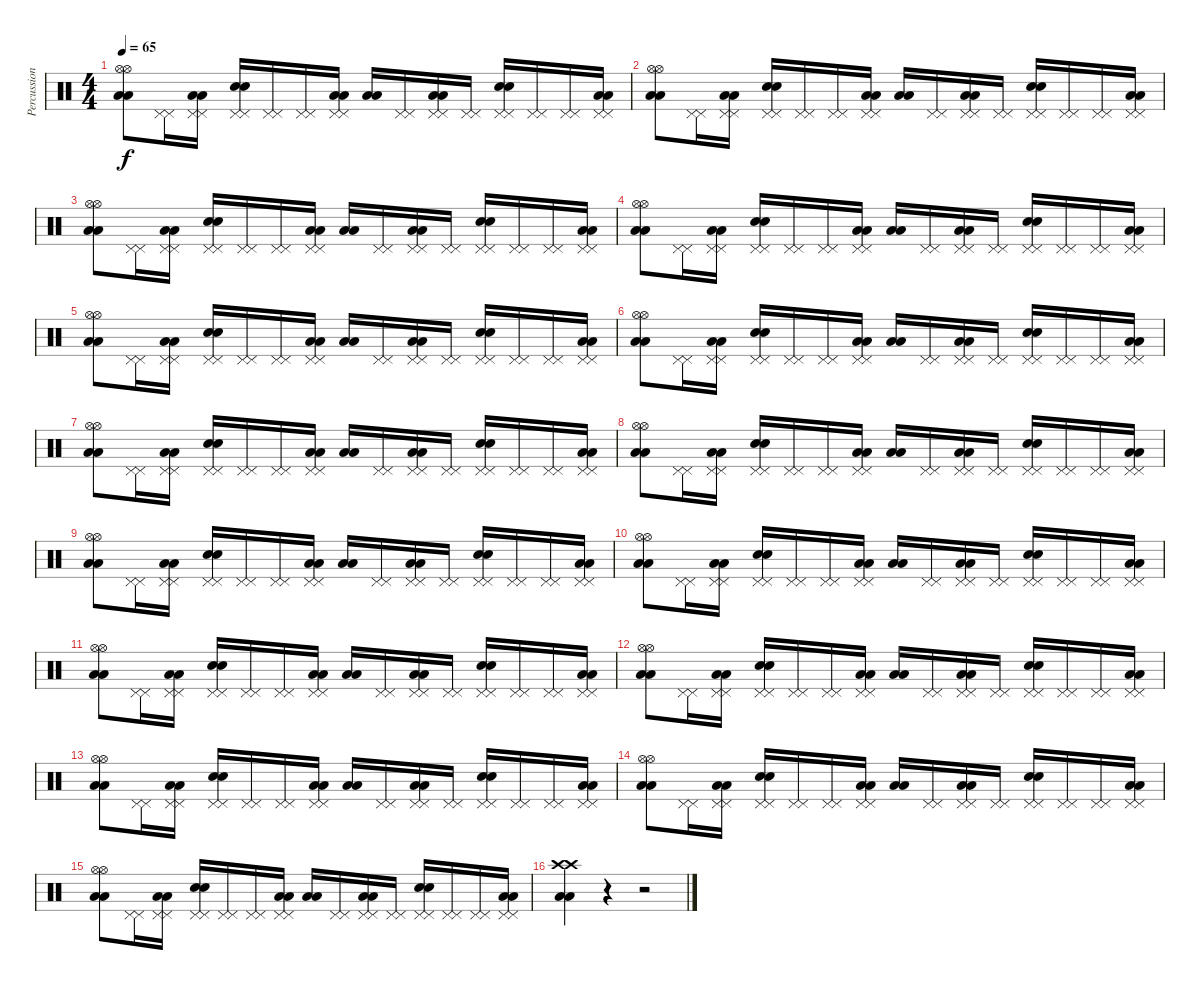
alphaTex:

\track ("Percussions" "Percussion") {instrument percussion}
\staff {score}
\articulation defaults
\ts (4 4)
\tempo 65
\clef neutral
\ks c
("Hi-Hat (open)" "Hi-Hat (open)" "Low Floor Tom (hit)" "Low Floor Tom (hit)").8{dy f} ("Pedal Hi-Hat (hit)" "Pedal Hi-Hat (hit)").16 ("Pedal Hi-Hat (hit)" "Pedal Hi-Hat (hit)" "Low Floor Tom (hit)" "Low Floor Tom (hit)").16 ("Pedal Hi-Hat (hit)" "Pedal Hi-Hat (hit)" "Snare (hit) 2" "Snare (hit) 2").16 ("Pedal Hi-Hat (hit)" "Pedal Hi-Hat (hit)").16 ("Pedal Hi-Hat (hit)" "Pedal Hi-Hat (hit)").16 ("Pedal Hi-Hat (hit)" "Pedal Hi-Hat (hit)" "Low Floor Tom (hit)" "Low Floor Tom (hit)").16 ("Low Floor Tom (hit)" "Low Floor Tom (hit)").16 ("Pedal Hi-Hat (hit)" "Pedal Hi-Hat (hit)").16 ("Pedal Hi-Hat (hit)" "Pedal Hi-Hat (hit)" "Low Floor Tom (hit)" "Low Floor Tom (hit)").16 ("Pedal Hi-Hat (hit)" "Pedal Hi-Hat (hit)").16 ("Pedal Hi-Hat (hit)" "Pedal Hi-Hat (hit)" "Snare (hit) 2" "Snare (hit) 2").16 ("Pedal Hi-Hat (hit)" "Pedal Hi-Hat (hit)").16 ("Pedal Hi-Hat (hit)" "Pedal Hi-Hat (hit)").16 ("Pedal Hi-Hat (hit)" "Pedal Hi-Hat (hit)" "Low Floor Tom (hit)" "Low Floor Tom (hit)").16 |
("Hi-Hat (open)" "Hi-Hat (open)" "Low Floor Tom (hit)" "Low Floor Tom (hit)").8 ("Pedal Hi-Hat (hit)" "Pedal Hi-Hat (hit)").16 ("Pedal Hi-Hat (hit)" "Pedal Hi-Hat (hit)" "Low Floor Tom (hit)" "Low Floor Tom (hit)").16 ("Pedal Hi-Hat (hit)" "Pedal Hi-Hat (hit)" "Snare (hit) 2" "Snare (hit) 2").16 ("Pedal Hi-Hat (hit)" "Pedal Hi-Hat (hit)").16 ("Pedal Hi-Hat (hit)" "Pedal Hi-Hat (hit)").16 ("Pedal Hi-Hat (hit)" "Pedal Hi-Hat (hit)" "Low Floor Tom (hit)" "Low Floor Tom (hit)").16 ("Low Floor Tom (hit)" "Low Floor Tom (hit)").16 ("Pedal Hi-Hat (hit)" "Pedal Hi-Hat (hit)").16 ("Pedal Hi-Hat (hit)" "Pedal Hi-Hat (hit)" "Low Floor Tom (hit)" "Low Floor Tom (hit)").16 ("Pedal Hi-Hat (hit)" "Pedal Hi-Hat (hit)").16 ("Pedal Hi-Hat (hit)" "Pedal Hi-Hat (hit)" "Snare (hit) 2" "Snare (hit) 2").16 ("Pedal Hi-Hat (hit)" "Pedal Hi-Hat (hit)").16 ("Pedal Hi-Hat (hit)" "Pedal Hi-Hat (hit)").16 ("Pedal Hi-Hat (hit)" "Pedal Hi-Hat (hit)" "Low Floor Tom (hit)" "Low Floor Tom (hit)").16 |
("Hi-Hat (open)" "Hi-Hat (open)" "Low Floor Tom (hit)" "Low Floor Tom (hit)").8 ("Pedal Hi-Hat (hit)" "Pedal Hi-Hat (hit)").16 ("Pedal Hi-Hat (hit)" "Pedal Hi-Hat (hit)" "Low Floor Tom (hit)" "Low Floor Tom (hit)").16 ("Pedal Hi-Hat (hit)" "Pedal Hi-Hat (hit)" "Snare (hit) 2" "Snare (hit) 2").16 ("Pedal Hi-Hat (hit)" "Pedal Hi-Hat (hit)").16 ("Pedal Hi-Hat (hit)" "Pedal Hi-Hat (hit)").16 ("Pedal Hi-Hat (hit)" "Pedal Hi-Hat (hit)" "Low Floor Tom (hit)" "Low Floor Tom (hit)").16 ("Low Floor Tom (hit)" "Low Floor Tom (hit)").16 ("Pedal Hi-Hat (hit)" "Pedal Hi-Hat (hit)").16 ("Pedal Hi-Hat (hit)" "Pedal Hi-Hat (hit)" "Low Floor Tom (hit)" "Low Floor Tom (hit)").16 ("Pedal Hi-Hat (hit)" "Pedal Hi-Hat (hit)").16 ("Pedal Hi-Hat (hit)" "Pedal Hi-Hat (hit)" "Snare (hit) 2" "Snare (hit) 2").16 ("Pedal Hi-Hat (hit)" "Pedal Hi-Hat (hit)").16 ("Pedal Hi-Hat (hit)" "Pedal Hi-Hat (hit)").16 ("Pedal Hi-Hat (hit)" "Pedal Hi-Hat (hit)" "Low Floor Tom (hit)" "Low Floor Tom (hit)").16 |
("Hi-Hat (open)" "Hi-Hat (open)" "Low Floor Tom (hit)" "Low Floor Tom (hit)").8 ("Pedal Hi-Hat (hit)" "Pedal Hi-Hat (hit)").16 ("Pedal Hi-Hat (hit)" "Pedal Hi-Hat (hit)" "Low Floor Tom (hit)" "Low Floor Tom (hit)").16 ("Pedal Hi-Hat (hit)" "Pedal Hi-Hat (hit)" "Snare (hit) 2" "Snare (hit) 2").16 ("Pedal Hi-Hat (hit)" "Pedal Hi-Hat (hit)").16 ("Pedal Hi-Hat (hit)" "Pedal Hi-Hat (hit)").16 ("Pedal Hi-Hat (hit)" "Pedal Hi-Hat (hit)" "Low Floor Tom (hit)" "Low Floor Tom (hit)").16 ("Low Floor Tom (hit)" "Low Floor Tom (hit)").16 ("Pedal Hi-Hat (hit)" "Pedal Hi-Hat (hit)").16 ("Pedal Hi-Hat (hit)" "Pedal Hi-Hat (hit)" "Low Floor Tom (hit)" "Low Floor Tom (hit)").16 ("Pedal Hi-Hat (hit)" "Pedal Hi-Hat (hit)").16 ("Pedal Hi-Hat (hit)" "Pedal Hi-Hat (hit)" "Snare (hit) 2" "Snare (hit) 2").16 ("Pedal Hi-Hat (hit)" "Pedal Hi-Hat (hit)").16 ("Pedal Hi-Hat (hit)" "Pedal Hi-Hat (hit)").16 ("Pedal Hi-Hat (hit)" "Pedal Hi-Hat (hit)" "Low Floor Tom (hit)" "Low Floor Tom (hit)").16 |
("Hi-Hat (open)" "Hi-Hat (open)" "Low Floor Tom (hit)" "Low Floor Tom (hit)").8 ("Pedal Hi-Hat (hit)" "Pedal Hi-Hat (hit)").16 ("Pedal Hi-Hat (hit)" "Pedal Hi-Hat (hit)" "Low Floor Tom (hit)" "Low Floor Tom (hit)").16 ("Pedal Hi-Hat (hit)" "Pedal Hi-Hat (hit)" "Snare (hit) 2" "Snare (hit) 2").16 ("Pedal Hi-Hat (hit)" "Pedal Hi-Hat (hit)").16 ("Pedal Hi-Hat (hit)" "Pedal Hi-Hat (hit)").16 ("Pedal Hi-Hat (hit)" "Pedal Hi-Hat (hit)" "Low Floor Tom (hit)" "Low Floor Tom (hit)").16 ("Low Floor Tom (hit)" "Low Floor Tom (hit)").16 ("Pedal Hi-Hat (hit)" "Pedal Hi-Hat (hit)").16 ("Pedal Hi-Hat (hit)" "Pedal Hi-Hat (hit)" "Low Floor Tom (hit)" "Low Floor Tom (hit)").16 ("Pedal Hi-Hat (hit)" "Pedal Hi-Hat (hit)").16 ("Pedal Hi-Hat (hit)" "Pedal Hi-Hat (hit)" "Snare (hit) 2" "Snare (hit) 2").16 ("Pedal Hi-Hat (hit)" "Pedal Hi-Hat (hit)").16 ("Pedal Hi-Hat (hit)" "Pedal Hi-Hat (hit)").16 ("Pedal Hi-Hat (hit)" "Pedal Hi-Hat (hit)" "Low Floor Tom (hit)" "Low Floor Tom (hit)").16 |
("Hi-Hat (open)" "Hi-Hat (open)" "Low Floor Tom (hit)" "Low Floor Tom (hit)").8 ("Pedal Hi-Hat (hit)" "Pedal Hi-Hat (hit)").16 ("Pedal Hi-Hat (hit)" "Pedal Hi-Hat (hit)" "Low Floor Tom (hit)" "Low Floor Tom (hit)").16 ("Pedal Hi-Hat (hit)" "Pedal Hi-Hat (hit)" "Snare (hit) 2" "Snare (hit) 2").16 ("Pedal Hi-Hat (hit)" "Pedal Hi-Hat (hit)").16 ("Pedal Hi-Hat (hit)" "Pedal Hi-Hat (hit)").16 ("Pedal Hi-Hat (hit)" "Pedal Hi-Hat (hit)" "Low Floor Tom (hit)" "Low Floor Tom (hit)").16 ("Low Floor Tom (hit)" "Low Floor Tom (hit)").16 ("Pedal Hi-Hat (hit)" "Pedal Hi-Hat (hit)").16 ("Pedal Hi-Hat (hit)" "Pedal Hi-Hat (hit)" "Low Floor Tom (hit)" "Low Floor Tom (hit)").16 ("Pedal Hi-Hat (hit)" "Pedal Hi-Hat (hit)").16 ("Pedal Hi-Hat (hit)" "Pedal Hi-Hat (hit)" "Snare (hit) 2" "Snare (hit) 2").16 ("Pedal Hi-Hat (hit)" "Pedal Hi-Hat (hit)").16 ("Pedal Hi-Hat (hit)" "Pedal Hi-Hat (hit)").16 ("Pedal Hi-Hat (hit)" "Pedal Hi-Hat (hit)" "Low Floor Tom (hit)" "Low Floor Tom (hit)").16 |
("Hi-Hat (open)" "Hi-Hat (open)" "Low Floor Tom (hit)" "Low Floor Tom (hit)").8 ("Pedal Hi-Hat (hit)" "Pedal Hi-Hat (hit)").16 ("Pedal Hi-Hat (hit)" "Pedal Hi-Hat (hit)" "Low Floor Tom (hit)" "Low Floor Tom (hit)").16 ("Pedal Hi-Hat (hit)" "Pedal Hi-Hat (hit)" "Snare (hit) 2" "Snare (hit) 2").16 ("Pedal Hi-Hat (hit)" "Pedal Hi-Hat (hit)").16 ("Pedal Hi-Hat (hit)" "Pedal Hi-Hat (hit)").16 ("Pedal Hi-Hat (hit)" "Pedal Hi-Hat (hit)" "Low Floor Tom (hit)" "Low Floor Tom (hit)").16 ("Low Floor Tom (hit)" "Low Floor Tom (hit)").16 ("Pedal Hi-Hat (hit)" "Pedal Hi-Hat (hit)").16 ("Pedal Hi-Hat (hit)" "Pedal Hi-Hat (hit)" "Low Floor Tom (hit)" "Low Floor Tom (hit)").16 ("Pedal Hi-Hat (hit)" "Pedal Hi-Hat (hit)").16 ("Pedal Hi-Hat (hit)" "Pedal Hi-Hat (hit)" "Snare (hit) 2" "Snare (hit) 2").16 ("Pedal Hi-Hat (hit)" "Pedal Hi-Hat (hit)").16 ("Pedal Hi-Hat (hit)" "Pedal Hi-Hat (hit)").16 ("Pedal Hi-Hat (hit)" "Pedal Hi-Hat (hit)" "Low Floor Tom (hit)" "Low Floor Tom (hit)").16 |
("Hi-Hat (open)" "Hi-Hat (open)" "Low Floor Tom (hit)" "Low Floor Tom (hit)").8 ("Pedal Hi-Hat (hit)" "Pedal Hi-Hat (hit)").16 ("Pedal Hi-Hat (hit)" "Pedal Hi-Hat (hit)" "Low Floor Tom (hit)" "Low Floor Tom (hit)").16 ("Pedal Hi-Hat (hit)" "Pedal Hi-Hat (hit)" "Snare (hit) 2" "Snare (hit) 2").16 ("Pedal Hi-Hat (hit)" "Pedal Hi-Hat (hit)").16 ("Pedal Hi-Hat (hit)" "Pedal Hi-Hat (hit)").16 ("Pedal Hi-Hat (hit)" "Pedal Hi-Hat (hit)" "Low Floor Tom (hit)" "Low Floor Tom (hit)").16 ("Low Floor Tom (hit)" "Low Floor Tom (hit)").16 ("Pedal Hi-Hat (hit)" "Pedal Hi-Hat (hit)").16 ("Pedal Hi-Hat (hit)" "Pedal Hi-Hat (hit)" "Low Floor Tom (hit)" "Low Floor Tom (hit)").16 ("Pedal Hi-Hat (hit)" "Pedal Hi-Hat (hit)").16 ("Pedal Hi-Hat (hit)" "Pedal Hi-Hat (hit)" "Snare (hit) 2" "Snare (hit) 2").16 ("Pedal Hi-Hat (hit)" "Pedal Hi-Hat (hit)").16 ("Pedal Hi-Hat (hit)" "Pedal Hi-Hat (hit)").16 ("Pedal Hi-Hat (hit)" "Pedal Hi-Hat (hit)" "Low Floor Tom (hit)" "Low Floor Tom (hit)").16 |
("Hi-Hat (open)" "Hi-Hat (open)" "Low Floor Tom (hit)" "Low Floor Tom (hit)").8 ("Pedal Hi-Hat (hit)" "Pedal Hi-Hat (hit)").16 ("Pedal Hi-Hat (hit)" "Pedal Hi-Hat (hit)" "Low Floor Tom (hit)" "Low Floor Tom (hit)").16 ("Pedal Hi-Hat (hit)" "Pedal Hi-Hat (hit)" "Snare (hit) 2" "Snare (hit) 2").16 ("Pedal Hi-Hat (hit)" "Pedal Hi-Hat (hit)").16 ("Pedal Hi-Hat (hit)" "Pedal Hi-Hat (hit)").16 ("Pedal Hi-Hat (hit)" "Pedal Hi-Hat (hit)" "Low Floor Tom (hit)" "Low Floor Tom (hit)").16 ("Low Floor Tom (hit)" "Low Floor Tom (hit)").16 ("Pedal Hi-Hat (hit)" "Pedal Hi-Hat (hit)").16 ("Pedal Hi-Hat (hit)" "Pedal Hi-Hat (hit)" "Low Floor Tom (hit)" "Low Floor Tom (hit)").16 ("Pedal Hi-Hat (hit)" "Pedal Hi-Hat (hit)").16 ("Pedal Hi-Hat (hit)" "Pedal Hi-Hat (hit)" "Snare (hit) 2" "Snare (hit) 2").16 ("Pedal Hi-Hat (hit)" "Pedal Hi-Hat (hit)").16 ("Pedal Hi-Hat (hit)" "Pedal Hi-Hat (hit)").16 ("Pedal Hi-Hat (hit)" "Pedal Hi-Hat (hit)" "Low Floor Tom (hit)" "Low Floor Tom (hit)").16 |
("Hi-Hat (open)" "Hi-Hat (open)" "Low Floor Tom (hit)" "Low Floor Tom (hit)").8 ("Pedal Hi-Hat (hit)" "Pedal Hi-Hat (hit)").16 ("Pedal Hi-Hat (hit)" "Pedal Hi-Hat (hit)" "Low Floor Tom (hit)" "Low Floor Tom (hit)").16 ("Pedal Hi-Hat (hit)" "Pedal Hi-Hat (hit)" "Snare (hit) 2" "Snare (hit) 2").16 ("Pedal Hi-Hat (hit)" "Pedal Hi-Hat (hit)").16 ("Pedal Hi-Hat (hit)" "Pedal Hi-Hat (hit)").16 ("Pedal Hi-Hat (hit)" "Pedal Hi-Hat (hit)" "Low Floor Tom (hit)" "Low Floor Tom (hit)").16 ("Low Floor Tom (hit)" "Low Floor Tom (hit)").16 ("Pedal Hi-Hat (hit)" "Pedal Hi-Hat (hit)").16 ("Pedal Hi-Hat (hit)" "Pedal Hi-Hat (hit)" "Low Floor Tom (hit)" "Low Floor Tom (hit)").16 ("Pedal Hi-Hat (hit)" "Pedal Hi-Hat (hit)").16 ("Pedal Hi-Hat (hit)" "Pedal Hi-Hat (hit)" "Snare (hit) 2" "Snare (hit) 2").16 ("Pedal Hi-Hat (hit)" "Pedal Hi-Hat (hit)").16 ("Pedal Hi-Hat (hit)" "Pedal Hi-Hat (hit)").16 ("Pedal Hi-Hat (hit)" "Pedal Hi-Hat (hit)" "Low Floor Tom (hit)" "Low Floor Tom (hit)").16 |
("Hi-Hat (open)" "Hi-Hat (open)" "Low Floor Tom (hit)" "Low Floor Tom (hit)").8 ("Pedal Hi-Hat (hit)" "Pedal Hi-Hat (hit)").16 ("Pedal Hi-Hat (hit)" "Pedal Hi-Hat (hit)" "Low Floor Tom (hit)" "Low Floor Tom (hit)").16 ("Pedal Hi-Hat (hit)" "Pedal Hi-Hat (hit)" "Snare (hit) 2" "Snare (hit) 2").16 ("Pedal Hi-Hat (hit)" "Pedal Hi-Hat (hit)").16 ("Pedal Hi-Hat (hit)" "Pedal Hi-Hat (hit)").16 ("Pedal Hi-Hat (hit)" "Pedal Hi-Hat (hit)" "Low Floor Tom (hit)" "Low Floor Tom (hit)").16 ("Low Floor Tom (hit)" "Low Floor Tom (hit)").16 ("Pedal Hi-Hat (hit)" "Pedal Hi-Hat (hit)").16 ("Pedal Hi-Hat (hit)" "Pedal Hi-Hat (hit)" "Low Floor Tom (hit)" "Low Floor Tom (hit)").16 ("Pedal Hi-Hat (hit)" "Pedal Hi-Hat (hit)").16 ("Pedal Hi-Hat (hit)" "Pedal Hi-Hat (hit)" "Snare (hit) 2" "Snare (hit) 2").16 ("Pedal Hi-Hat (hit)" "Pedal Hi-Hat (hit)").16 ("Pedal Hi-Hat (hit)" "Pedal Hi-Hat (hit)").16 ("Pedal Hi-Hat (hit)" "Pedal Hi-Hat (hit)" "Low Floor Tom (hit)" "Low Floor Tom (hit)").16 |
("Hi-Hat (open)" "Hi-Hat (open)" "Low Floor Tom (hit)" "Low Floor Tom (hit)").8 ("Pedal Hi-Hat (hit)" "Pedal Hi-Hat (hit)").16 ("Pedal Hi-Hat (hit)" "Pedal Hi-Hat (hit)" "Low Floor Tom (hit)" "Low Floor Tom (hit)").16 ("Pedal Hi-Hat (hit)" "Pedal Hi-Hat (hit)" "Snare (hit) 2" "Snare (hit) 2").16 ("Pedal Hi-Hat (hit)" "Pedal Hi-Hat (hit)").16 ("Pedal Hi-Hat (hit)" "Pedal Hi-Hat (hit)").16 ("Pedal Hi-Hat (hit)" "Pedal Hi-Hat (hit)" "Low Floor Tom (hit)" "Low Floor Tom (hit)").16 ("Low Floor Tom (hit)" "Low Floor Tom (hit)").16 ("Pedal Hi-Hat (hit)" "Pedal Hi-Hat (hit)").16 ("Pedal Hi-Hat (hit)" "Pedal Hi-Hat (hit)" "Low Floor Tom (hit)" "Low Floor Tom (hit)").16 ("Pedal Hi-Hat (hit)" "Pedal Hi-Hat (hit)").16 ("Pedal Hi-Hat (hit)" "Pedal Hi-Hat (hit)" "Snare (hit) 2" "Snare (hit) 2").16 ("Pedal Hi-Hat (hit)" "Pedal Hi-Hat (hit)").16 ("Pedal Hi-Hat (hit)" "Pedal Hi-Hat (hit)").16 ("Pedal Hi-Hat (hit)" "Pedal Hi-Hat (hit)" "Low Floor Tom (hit)" "Low Floor Tom (hit)").16 |
("Hi-Hat (open)" "Hi-Hat (open)" "Low Floor Tom (hit)" "Low Floor Tom (hit)").8 ("Pedal Hi-Hat (hit)" "Pedal Hi-Hat (hit)").16 ("Pedal Hi-Hat (hit)" "Pedal Hi-Hat (hit)" "Low Floor Tom (hit)" "Low Floor Tom (hit)").16 ("Pedal Hi-Hat (hit)" "Pedal Hi-Hat (hit)" "Snare (hit) 2" "Snare (hit) 2").16 ("Pedal Hi-Hat (hit)" "Pedal Hi-Hat (hit)").16 ("Pedal Hi-Hat (hit)" "Pedal Hi-Hat (hit)").16 ("Pedal Hi-Hat (hit)" "Pedal Hi-Hat (hit)" "Low Floor Tom (hit)" "Low Floor Tom (hit)").16 ("Low Floor Tom (hit)" "Low Floor Tom (hit)").16 ("Pedal Hi-Hat (hit)" "Pedal Hi-Hat (hit)").16 ("Pedal Hi-Hat (hit)" "Pedal Hi-Hat (hit)" "Low Floor Tom (hit)" "Low Floor Tom (hit)").16 ("Pedal Hi-Hat (hit)" "Pedal Hi-Hat (hit)").16 ("Pedal Hi-Hat (hit)" "Pedal Hi-Hat (hit)" "Snare (hit) 2" "Snare (hit) 2").16 ("Pedal Hi-Hat (hit)" "Pedal Hi-Hat (hit)").16 ("Pedal Hi-Hat (hit)" "Pedal Hi-Hat (hit)").16 ("Pedal Hi-Hat (hit)" "Pedal Hi-Hat (hit)" "Low Floor Tom (hit)" "Low Floor Tom (hit)").16 |
("Hi-Hat (open)" "Hi-Hat (open)" "Low Floor Tom (hit)" "Low Floor Tom (hit)").8 ("Pedal Hi-Hat (hit)" "Pedal Hi-Hat (hit)").16 ("Pedal Hi-Hat (hit)" "Pedal Hi-Hat (hit)" "Low Floor Tom (hit)" "Low Floor Tom (hit)").16 ("Pedal Hi-Hat (hit)" "Pedal Hi-Hat (hit)" "Snare (hit) 2" "Snare (hit) 2").16 ("Pedal Hi-Hat (hit)" "Pedal Hi-Hat (hit)").16 ("Pedal Hi-Hat (hit)" "Pedal Hi-Hat (hit)").16 ("Pedal Hi-Hat (hit)" "Pedal Hi-Hat (hit)" "Low Floor Tom (hit)" "Low Floor Tom (hit)").16 ("Low Floor Tom (hit)" "Low Floor Tom (hit)").16 ("Pedal Hi-Hat (hit)" "Pedal Hi-Hat (hit)").16 ("Pedal Hi-Hat (hit)" "Pedal Hi-Hat (hit)" "Low Floor Tom (hit)" "Low Floor Tom (hit)").16 ("Pedal Hi-Hat (hit)" "Pedal Hi-Hat (hit)").16 ("Pedal Hi-Hat (hit)" "Pedal Hi-Hat (hit)" "Snare (hit) 2" "Snare (hit) 2").16 ("Pedal Hi-Hat (hit)" "Pedal Hi-Hat (hit)").16 ("Pedal Hi-Hat (hit)" "Pedal Hi-Hat (hit)").16 ("Pedal Hi-Hat (hit)" "Pedal Hi-Hat (hit)" "Low Floor Tom (hit)" "Low Floor Tom (hit)").16 |
("Hi-Hat (open)" "Hi-Hat (open)" "Low Floor Tom (hit)" "Low Floor Tom (hit)").8 ("Pedal Hi-Hat (hit)" "Pedal Hi-Hat (hit)").16 ("Pedal Hi-Hat (hit)" "Pedal Hi-Hat (hit)" "Low Floor Tom (hit)" "Low Floor Tom (hit)").16 ("Pedal Hi-Hat (hit)" "Pedal Hi-Hat (hit)" "Snare (hit) 2" "Snare (hit) 2").16 ("Pedal Hi-Hat (hit)" "Pedal Hi-Hat (hit)").16 ("Pedal Hi-Hat (hit)" "Pedal Hi-Hat (hit)").16 ("Pedal Hi-Hat (hit)" "Pedal Hi-Hat (hit)" "Low Floor Tom (hit)" "Low Floor Tom (hit)").16 ("Low Floor Tom (hit)" "Low Floor Tom (hit)").16 ("Pedal Hi-Hat (hit)" "Pedal Hi-Hat (hit)").16 ("Pedal Hi-Hat (hit)" "Pedal Hi-Hat (hit)" "Low Floor Tom (hit)" "Low Floor Tom (hit)").16 ("Pedal Hi-Hat (hit)" "Pedal Hi-Hat (hit)").16 ("Pedal Hi-Hat (hit)" "Pedal Hi-Hat (hit)" "Snare (hit) 2" "Snare (hit) 2").16 ("Pedal Hi-Hat (hit)" "Pedal Hi-Hat (hit)").16 ("Pedal Hi-Hat (hit)" "Pedal Hi-Hat (hit)").16 ("Pedal Hi-Hat (hit)" "Pedal Hi-Hat (hit)" "Low Floor Tom (hit)" "Low Floor Tom (hit)").16 |
("Crash high (hit)" "Crash high (hit)" "Low Floor Tom (hit)" "Low Floor Tom (hit)").4 r.4 r.2
